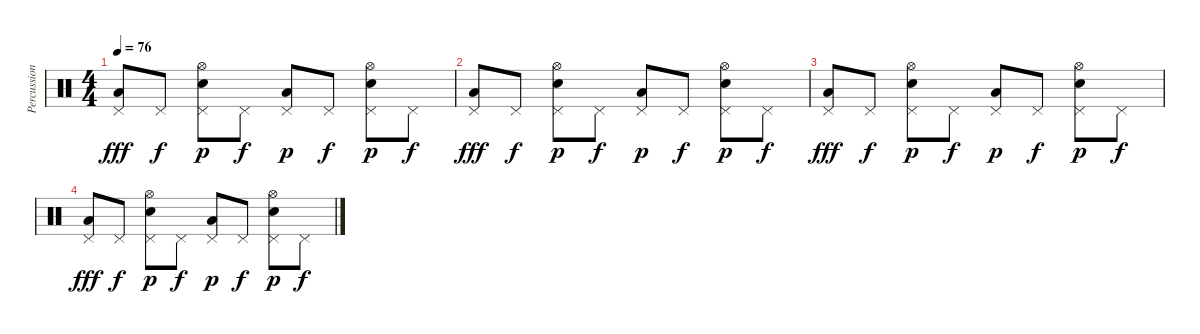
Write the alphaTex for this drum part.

\track ("Percussion" "Percussion") {instrument percussion}
\staff {score}
\articulation defaults
\ts (4 4)
\tempo 76
\clef neutral
\ks c
("Low Floor Tom (hit)" "Pedal Hi-Hat (hit)").8{dy fff} "Pedal Hi-Hat (hit)".8{dy f} ("Electric Snare (hit)" "Pedal Hi-Hat (hit)" "Hi-Hat (open)").8{dy p} "Pedal Hi-Hat (hit)".8{dy f} ("Low Floor Tom (hit)" "Pedal Hi-Hat (hit)").8{dy p} "Pedal Hi-Hat (hit)".8{dy f} ("Electric Snare (hit)" "Pedal Hi-Hat (hit)" "Hi-Hat (open)").8{dy p} "Pedal Hi-Hat (hit)".8{dy f} |
("Low Floor Tom (hit)" "Pedal Hi-Hat (hit)").8{dy fff} "Pedal Hi-Hat (hit)".8{dy f} ("Electric Snare (hit)" "Pedal Hi-Hat (hit)" "Hi-Hat (open)").8{dy p} "Pedal Hi-Hat (hit)".8{dy f} ("Low Floor Tom (hit)" "Pedal Hi-Hat (hit)").8{dy p} "Pedal Hi-Hat (hit)".8{dy f} ("Electric Snare (hit)" "Pedal Hi-Hat (hit)" "Hi-Hat (open)").8{dy p} "Pedal Hi-Hat (hit)".8{dy f} |
("Low Floor Tom (hit)" "Pedal Hi-Hat (hit)").8{dy fff} "Pedal Hi-Hat (hit)".8{dy f} ("Electric Snare (hit)" "Pedal Hi-Hat (hit)" "Hi-Hat (open)").8{dy p} "Pedal Hi-Hat (hit)".8{dy f} ("Low Floor Tom (hit)" "Pedal Hi-Hat (hit)").8{dy p} "Pedal Hi-Hat (hit)".8{dy f} ("Electric Snare (hit)" "Pedal Hi-Hat (hit)" "Hi-Hat (open)").8{dy p} "Pedal Hi-Hat (hit)".8{dy f} |
("Low Floor Tom (hit)" "Pedal Hi-Hat (hit)").8{dy fff} "Pedal Hi-Hat (hit)".8{dy f} ("Electric Snare (hit)" "Pedal Hi-Hat (hit)" "Hi-Hat (open)").8{dy p} "Pedal Hi-Hat (hit)".8{dy f} ("Low Floor Tom (hit)" "Pedal Hi-Hat (hit)").8{dy p} "Pedal Hi-Hat (hit)".8{dy f} ("Electric Snare (hit)" "Pedal Hi-Hat (hit)" "Hi-Hat (open)").8{dy p} "Pedal Hi-Hat (hit)".8{dy f}
